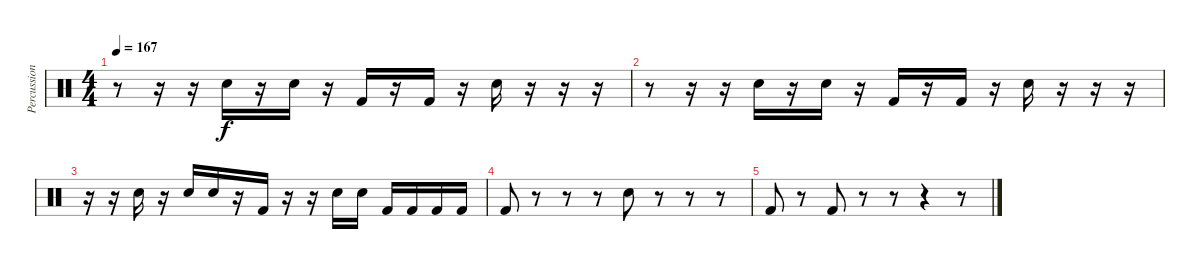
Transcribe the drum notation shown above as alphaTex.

\track ("Percussion 1" "Percussion") {instrument percussion}
\staff {score}
\articulation defaults
\ts (4 4)
\tempo 167
\clef neutral
\ks c
r.8{dy f} r.16 r.16 "Electric Snare (hit)".16 r.16 "Electric Snare (hit)".16 r.16 "Kick (hit) 2".16 r.16 "Kick (hit) 2".16 r.16 "Snare (hit) 2".16 r.16 r.16 r.16 |
r.8 r.16 r.16 "Electric Snare (hit)".16 r.16 "Electric Snare (hit)".16 r.16 "Kick (hit) 2".16 r.16 "Kick (hit) 2".16 r.16 "Snare (hit) 2".16 r.16 r.16 r.16 |
r.16 r.16 "Snare (hit) 2".16 r.16 "Electric Snare (hit)".16 "Electric Snare (hit)".16 r.16 "Kick (hit) 2".16 r.16 r.16 "Snare (hit) 2".16 "Snare (hit) 2".16 "Kick (hit) 2".16 "Kick (hit) 2".16 "Kick (hit) 2".16 "Kick (hit) 2".16 |
"Kick (hit) 2".8 r.8 r.8 r.8 "Snare (hit) 2".8 r.8 r.8 r.8 |
"Kick (hit) 2".8 r.8 "Kick (hit) 2".8 r.8 r.8 r.4 r.8
